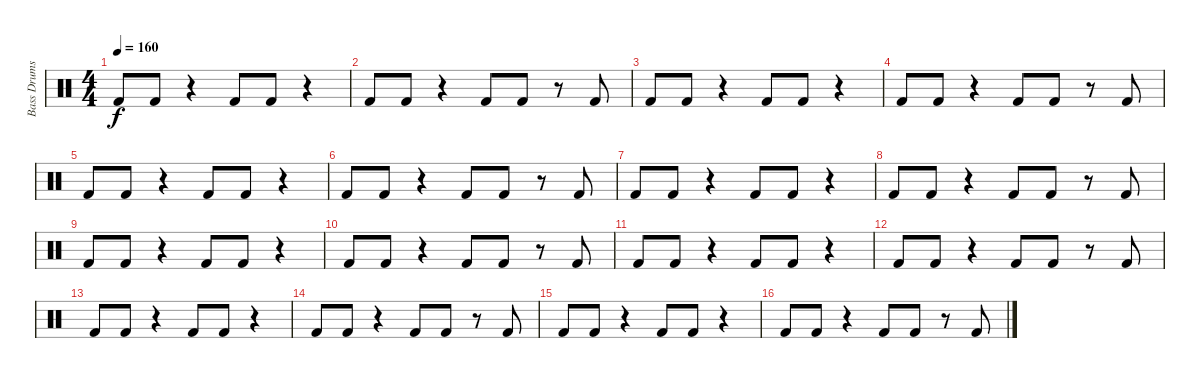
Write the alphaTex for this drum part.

\track ("Bass Drums" "Bass Drums") {instrument percussion}
\staff {score}
\articulation defaults
\ts (4 4)
\tempo 160
\clef neutral
\ks c "Kick (hit) 2".8{dy f} "Kick (hit) 2".8
r.4 "Kick (hit) 2".8 "Kick (hit) 2".8 r.4 |
"Kick (hit) 2".8 "Kick (hit) 2".8 r.4 "Kick (hit) 2".8 "Kick (hit) 2".8 r.8 "Kick (hit) 2".8 |
"Kick (hit) 2".8 "Kick (hit) 2".8 r.4 "Kick (hit) 2".8 "Kick (hit) 2".8 r.4 |
"Kick (hit) 2".8 "Kick (hit) 2".8 r.4 "Kick (hit) 2".8 "Kick (hit) 2".8 r.8 "Kick (hit) 2".8 |
"Kick (hit) 2".8 "Kick (hit) 2".8 r.4 "Kick (hit) 2".8 "Kick (hit) 2".8 r.4 |
"Kick (hit) 2".8 "Kick (hit) 2".8 r.4 "Kick (hit) 2".8 "Kick (hit) 2".8 r.8 "Kick (hit) 2".8 |
"Kick (hit) 2".8 "Kick (hit) 2".8 r.4 "Kick (hit) 2".8 "Kick (hit) 2".8 r.4 |
"Kick (hit) 2".8 "Kick (hit) 2".8 r.4 "Kick (hit) 2".8 "Kick (hit) 2".8 r.8 "Kick (hit) 2".8 |
"Kick (hit) 2".8 "Kick (hit) 2".8 r.4 "Kick (hit) 2".8 "Kick (hit) 2".8 r.4 |
"Kick (hit) 2".8 "Kick (hit) 2".8 r.4 "Kick (hit) 2".8 "Kick (hit) 2".8 r.8 "Kick (hit) 2".8 |
"Kick (hit) 2".8 "Kick (hit) 2".8 r.4 "Kick (hit) 2".8 "Kick (hit) 2".8 r.4 |
"Kick (hit) 2".8 "Kick (hit) 2".8 r.4 "Kick (hit) 2".8 "Kick (hit) 2".8 r.8 "Kick (hit) 2".8 |
"Kick (hit) 2".8 "Kick (hit) 2".8 r.4 "Kick (hit) 2".8 "Kick (hit) 2".8 r.4 |
"Kick (hit) 2".8 "Kick (hit) 2".8 r.4 "Kick (hit) 2".8 "Kick (hit) 2".8 r.8 "Kick (hit) 2".8 |
"Kick (hit) 2".8 "Kick (hit) 2".8 r.4 "Kick (hit) 2".8 "Kick (hit) 2".8 r.4 |
"Kick (hit) 2".8 "Kick (hit) 2".8 r.4 "Kick (hit) 2".8 "Kick (hit) 2".8 r.8 "Kick (hit) 2".8
